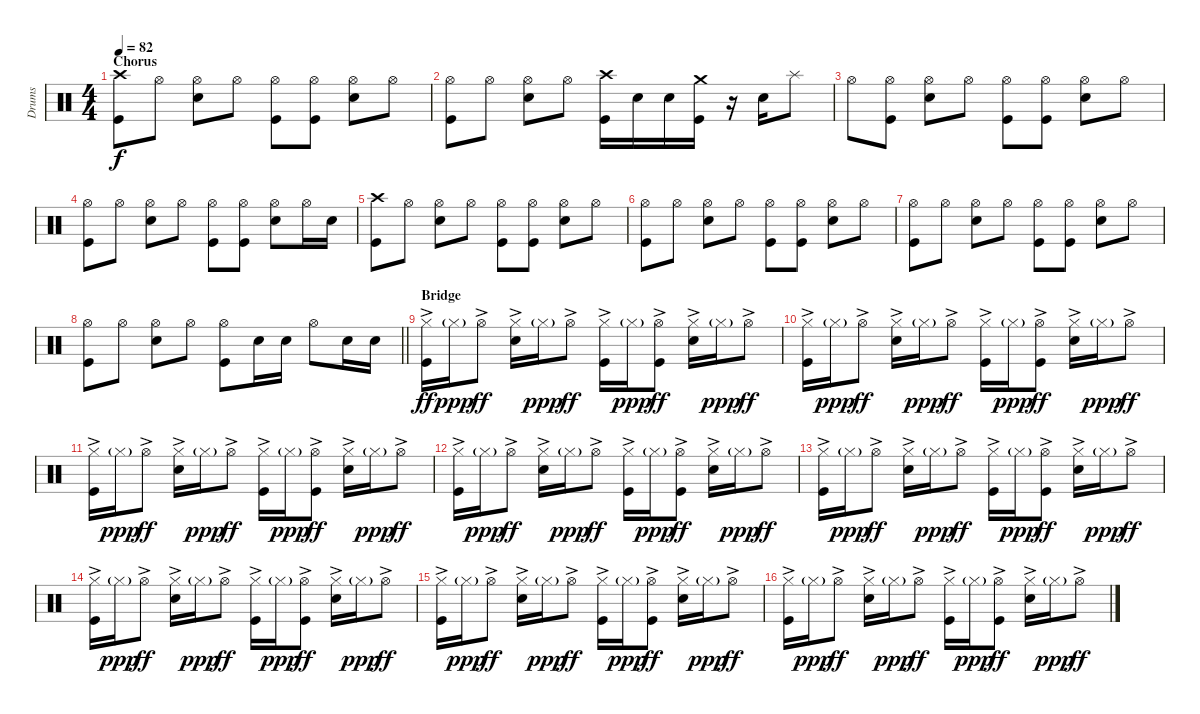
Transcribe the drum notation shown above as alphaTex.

\track ("Drums" "Drums") {instrument percussion}
\staff {score}
\articulation defaults
\ts (4 4)
\section ("" "Chorus")
\tempo 82
\clef neutral
\ks c
("Crash high (hit)" "Kick (hit)").8{dy f} "Hi-Hat (open)".8 ("Hi-Hat (open)" "Snare (hit) 2").8 "Hi-Hat (open)".8 ("Hi-Hat (open)" "Kick (hit)").8 ("Hi-Hat (open)" "Kick (hit)").8 ("Hi-Hat (open)" "Snare (hit) 2").8 "Hi-Hat (open)".8 |
("Hi-Hat (open)" "Kick (hit)").8 "Hi-Hat (open)".8 ("Hi-Hat (open)" "Snare (hit) 2").8 "Hi-Hat (open)".8 ("Crash high (hit)" "Kick (hit)").16 "Snare (hit) 2".16 "Snare (hit) 2".16 ("Crash medium (hit)" "Kick (hit)").16 r.16 "Snare (hit) 2".16 "Splash (hit)".8 |
"Hi-Hat (open)".8 ("Hi-Hat (open)" "Kick (hit)").8 ("Hi-Hat (open)" "Snare (hit) 2").8 "Hi-Hat (open)".8 ("Hi-Hat (open)" "Kick (hit)").8 ("Hi-Hat (open)" "Kick (hit)").8 ("Hi-Hat (open)" "Snare (hit) 2").8 "Hi-Hat (open)".8 |
("Hi-Hat (open)" "Kick (hit)").8 "Hi-Hat (open)".8 ("Hi-Hat (open)" "Snare (hit) 2").8 "Hi-Hat (open)".8 ("Hi-Hat (open)" "Kick (hit)").8 ("Hi-Hat (open)" "Kick (hit)").8 ("Hi-Hat (open)" "Snare (hit) 2").8 "Hi-Hat (open)".16 "Snare (hit) 2".16 |
("Crash high (hit)" "Kick (hit)").8 "Hi-Hat (open)".8 ("Hi-Hat (open)" "Snare (hit) 2").8 "Hi-Hat (open)".8 ("Hi-Hat (open)" "Kick (hit)").8 ("Hi-Hat (open)" "Kick (hit)").8 ("Hi-Hat (open)" "Snare (hit) 2").8 "Hi-Hat (open)".8 |
("Hi-Hat (open)" "Kick (hit)").8 "Hi-Hat (open)".8 ("Hi-Hat (open)" "Snare (hit) 2").8 "Hi-Hat (open)".8 ("Hi-Hat (open)" "Kick (hit)").8 ("Hi-Hat (open)" "Kick (hit)").8 ("Hi-Hat (open)" "Snare (hit) 2").8 "Hi-Hat (open)".8 |
("Hi-Hat (open)" "Kick (hit)").8 "Hi-Hat (open)".8 ("Hi-Hat (open)" "Snare (hit) 2").8 "Hi-Hat (open)".8 ("Hi-Hat (open)" "Kick (hit)").8 ("Hi-Hat (open)" "Kick (hit)").8 ("Hi-Hat (open)" "Snare (hit) 2").8 "Hi-Hat (open)".8 |
\barLineRight lightlight
("Hi-Hat (open)" "Kick (hit)").8 "Hi-Hat (open)".8 ("Hi-Hat (open)" "Snare (hit) 2").8 "Hi-Hat (open)".8 ("Hi-Hat (open)" "Kick (hit)").8 "Snare (hit) 2".16 "Snare (hit) 2".16 "Hi-Hat (open)".8 "Snare (hit) 2".16 "Snare (hit) 2".16 |
\section ("" "Bridge")
("Hi-Hat (closed)"{ac} "Kick (hit)").16{dy ff} "Hi-Hat (closed)"{g}.16{dy ppp} "Hi-Hat (open)"{ac}.8{dy ff} ("Hi-Hat (closed)"{ac} "Snare (hit) 2").16 "Hi-Hat (closed)"{g}.16{dy ppp} "Hi-Hat (open)"{ac}.8{dy ff} ("Hi-Hat (closed)"{ac} "Kick (hit)").16 "Hi-Hat (closed)"{g}.16{dy ppp} ("Hi-Hat (open)"{ac} "Kick (hit)").8{dy ff} ("Hi-Hat (closed)"{ac} "Snare (hit) 2").16 "Hi-Hat (closed)"{g}.16{dy ppp} "Hi-Hat (open)"{ac}.8{dy ff} |
("Hi-Hat (closed)"{ac} "Kick (hit)").16 "Hi-Hat (closed)"{g}.16{dy ppp} "Hi-Hat (open)"{ac}.8{dy ff} ("Hi-Hat (closed)"{ac} "Snare (hit) 2").16 "Hi-Hat (closed)"{g}.16{dy ppp} "Hi-Hat (open)"{ac}.8{dy ff} ("Hi-Hat (closed)"{ac} "Kick (hit)").16 "Hi-Hat (closed)"{g}.16{dy ppp} ("Hi-Hat (open)"{ac} "Kick (hit)").8{dy ff} ("Hi-Hat (closed)"{ac} "Snare (hit) 2").16 "Hi-Hat (closed)"{g}.16{dy ppp} "Hi-Hat (open)"{ac}.8{dy ff} |
("Hi-Hat (closed)"{ac} "Kick (hit)").16 "Hi-Hat (closed)"{g}.16{dy ppp} "Hi-Hat (open)"{ac}.8{dy ff} ("Hi-Hat (closed)"{ac} "Snare (hit) 2").16 "Hi-Hat (closed)"{g}.16{dy ppp} "Hi-Hat (open)"{ac}.8{dy ff} ("Hi-Hat (closed)"{ac} "Kick (hit)").16 "Hi-Hat (closed)"{g}.16{dy ppp} ("Hi-Hat (open)"{ac} "Kick (hit)").8{dy ff} ("Hi-Hat (closed)"{ac} "Snare (hit) 2").16 "Hi-Hat (closed)"{g}.16{dy ppp} "Hi-Hat (open)"{ac}.8{dy ff} |
("Hi-Hat (closed)"{ac} "Kick (hit)").16 "Hi-Hat (closed)"{g}.16{dy ppp} "Hi-Hat (open)"{ac}.8{dy ff} ("Hi-Hat (closed)"{ac} "Snare (hit) 2").16 "Hi-Hat (closed)"{g}.16{dy ppp} "Hi-Hat (open)"{ac}.8{dy ff} ("Hi-Hat (closed)"{ac} "Kick (hit)").16 "Hi-Hat (closed)"{g}.16{dy ppp} ("Hi-Hat (open)"{ac} "Kick (hit)").8{dy ff} ("Hi-Hat (closed)"{ac} "Snare (hit) 2").16 "Hi-Hat (closed)"{g}.16{dy ppp} "Hi-Hat (open)"{ac}.8{dy ff} |
("Hi-Hat (closed)"{ac} "Kick (hit)").16 "Hi-Hat (closed)"{g}.16{dy ppp} "Hi-Hat (open)"{ac}.8{dy ff} ("Hi-Hat (closed)"{ac} "Snare (hit) 2").16 "Hi-Hat (closed)"{g}.16{dy ppp} "Hi-Hat (open)"{ac}.8{dy ff} ("Hi-Hat (closed)"{ac} "Kick (hit)").16 "Hi-Hat (closed)"{g}.16{dy ppp} ("Hi-Hat (open)"{ac} "Kick (hit)").8{dy ff} ("Hi-Hat (closed)"{ac} "Snare (hit) 2").16 "Hi-Hat (closed)"{g}.16{dy ppp} "Hi-Hat (open)"{ac}.8{dy ff} |
("Hi-Hat (closed)"{ac} "Kick (hit)").16 "Hi-Hat (closed)"{g}.16{dy ppp} "Hi-Hat (open)"{ac}.8{dy ff} ("Hi-Hat (closed)"{ac} "Snare (hit) 2").16 "Hi-Hat (closed)"{g}.16{dy ppp} "Hi-Hat (open)"{ac}.8{dy ff} ("Hi-Hat (closed)"{ac} "Kick (hit)").16 "Hi-Hat (closed)"{g}.16{dy ppp} ("Hi-Hat (open)"{ac} "Kick (hit)").8{dy ff} ("Hi-Hat (closed)"{ac} "Snare (hit) 2").16 "Hi-Hat (closed)"{g}.16{dy ppp} "Hi-Hat (open)"{ac}.8{dy ff} |
("Hi-Hat (closed)"{ac} "Kick (hit)").16 "Hi-Hat (closed)"{g}.16{dy ppp} "Hi-Hat (open)"{ac}.8{dy ff} ("Hi-Hat (closed)"{ac} "Snare (hit) 2").16 "Hi-Hat (closed)"{g}.16{dy ppp} "Hi-Hat (open)"{ac}.8{dy ff} ("Hi-Hat (closed)"{ac} "Kick (hit)").16 "Hi-Hat (closed)"{g}.16{dy ppp} ("Hi-Hat (open)"{ac} "Kick (hit)").8{dy ff} ("Hi-Hat (closed)"{ac} "Snare (hit) 2").16 "Hi-Hat (closed)"{g}.16{dy ppp} "Hi-Hat (open)"{ac}.8{dy ff} |
("Hi-Hat (closed)"{ac} "Kick (hit)").16 "Hi-Hat (closed)"{g}.16{dy ppp} "Hi-Hat (open)"{ac}.8{dy ff} ("Hi-Hat (closed)"{ac} "Snare (hit) 2").16 "Hi-Hat (closed)"{g}.16{dy ppp} "Hi-Hat (open)"{ac}.8{dy ff} ("Hi-Hat (closed)"{ac} "Kick (hit)").16 "Hi-Hat (closed)"{g}.16{dy ppp} ("Hi-Hat (open)"{ac} "Kick (hit)").8{dy ff} ("Hi-Hat (closed)"{ac} "Snare (hit) 2").16 "Hi-Hat (closed)"{g}.16{dy ppp} "Hi-Hat (open)"{ac}.8{dy ff}
